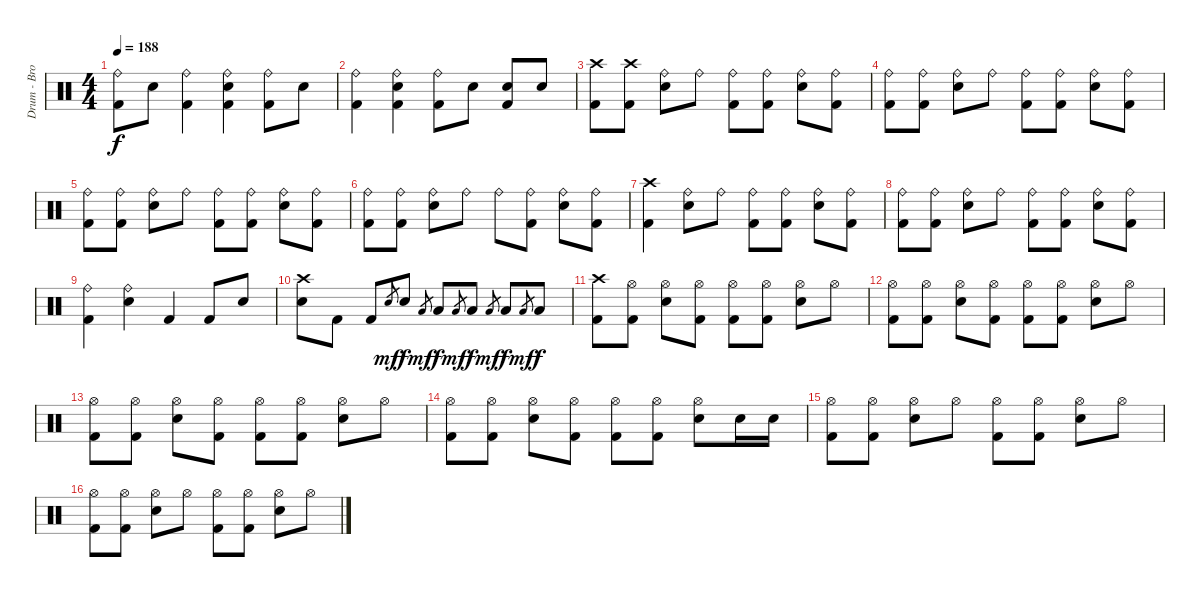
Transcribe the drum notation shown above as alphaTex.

\track ("Drum - Brooks Wackerman" "Drum - Bro") {instrument percussion}
\staff {score}
\articulation defaults
\ts (4 4)
\tempo 188
\clef neutral
\ks c
("Ride (bell)" "Kick (hit) 2").8{dy f} "Electric Snare (hit)".8 ("Ride (bell)" "Kick (hit) 2").4 ("Ride (bell)" "Electric Snare (hit)" "Kick (hit) 2").4 ("Ride (bell)" "Kick (hit) 2").8 "Electric Snare (hit)".8 |
("Ride (bell)" "Kick (hit) 2").4 ("Ride (bell)" "Electric Snare (hit)" "Kick (hit) 2").4 ("Ride (bell)" "Kick (hit) 2").8 "Electric Snare (hit)".8 ("Electric Snare (hit)" "Kick (hit) 2").8 "Electric Snare (hit)".8 |
("Crash high (hit)" "Kick (hit) 2").8{volume 14} ("Crash high (hit)" "Kick (hit) 2").8 ("Ride (bell)" "Electric Snare (hit)").8 "Ride (bell)".8 ("Ride (bell)" "Kick (hit) 2").8 ("Ride (bell)" "Kick (hit) 2").8 ("Ride (bell)" "Electric Snare (hit)").8 ("Ride (bell)" "Kick (hit) 2").8 |
("Ride (bell)" "Kick (hit) 2").8 ("Ride (bell)" "Kick (hit) 2").8 ("Ride (bell)" "Electric Snare (hit)").8 "Ride (bell)".8 ("Ride (bell)" "Kick (hit) 2").8 ("Ride (bell)" "Kick (hit) 2").8 ("Ride (bell)" "Electric Snare (hit)").8 ("Ride (bell)" "Kick (hit) 2").8 |
("Ride (bell)" "Kick (hit) 2").8 ("Ride (bell)" "Kick (hit) 2").8 ("Ride (bell)" "Electric Snare (hit)").8 "Ride (bell)".8 ("Ride (bell)" "Kick (hit) 2").8 ("Ride (bell)" "Kick (hit) 2").8 ("Ride (bell)" "Electric Snare (hit)").8 ("Ride (bell)" "Kick (hit) 2").8 |
("Ride (bell)" "Kick (hit) 2").8 ("Ride (bell)" "Kick (hit) 2").8 ("Ride (bell)" "Electric Snare (hit)").8 "Ride (bell)".8 "Ride (bell)".8 ("Ride (bell)" "Kick (hit) 2").8 ("Ride (bell)" "Electric Snare (hit)").8 ("Ride (bell)" "Kick (hit) 2").8 |
("Crash high (hit)" "Kick (hit) 2").4 ("Ride (bell)" "Electric Snare (hit)").8 "Ride (bell)".8 ("Ride (bell)" "Kick (hit) 2").8 ("Ride (bell)" "Kick (hit) 2").8 ("Ride (bell)" "Electric Snare (hit)").8 ("Ride (bell)" "Kick (hit) 2").8 |
("Ride (bell)" "Kick (hit) 2").8 ("Ride (bell)" "Kick (hit) 2").8 ("Ride (bell)" "Electric Snare (hit)").8 "Ride (bell)".8 ("Ride (bell)" "Kick (hit) 2").8 ("Ride (bell)" "Kick (hit) 2").8 ("Ride (bell)" "Electric Snare (hit)").8 ("Ride (bell)" "Kick (hit) 2").8 |
("Ride (bell)" "Kick (hit) 2").4 ("Ride (bell)" "Electric Snare (hit)").4 "Kick (hit) 2".4 "Kick (hit) 2".8 "Electric Snare (hit)".8 |
("Crash high (hit)" "Electric Snare (hit)").8 "Kick (hit) 2".8 "Kick (hit) 2".8 "Electric Snare (hit)".8{gr dy mf} "Electric Snare (hit)".8{dy f} "Low Tom (hit)".8{gr dy mf} "Low Tom (hit)".8{dy f} "Low Floor Tom (hit)".8{gr dy mf} "Low Floor Tom (hit)".8{dy f} "Low Floor Tom (hit)".8{gr dy mf} "Low Floor Tom (hit)".8{dy f} "Low Floor Tom (hit)".8{gr dy mf} "Low Floor Tom (hit)".8{dy f} |
("Crash high (hit)" "Kick (hit) 2").8 ("Hi-Hat (open)" "Kick (hit) 2").8 ("Hi-Hat (open)" "Electric Snare (hit)").8 ("Hi-Hat (open)" "Kick (hit) 2").8 ("Hi-Hat (open)" "Kick (hit) 2").8 ("Hi-Hat (open)" "Kick (hit) 2").8 ("Hi-Hat (open)" "Electric Snare (hit)").8 "Hi-Hat (open)".8 |
("Hi-Hat (open)" "Kick (hit) 2").8 ("Hi-Hat (open)" "Kick (hit) 2").8 ("Hi-Hat (open)" "Electric Snare (hit)").8 ("Hi-Hat (open)" "Kick (hit) 2").8 ("Hi-Hat (open)" "Kick (hit) 2").8 ("Hi-Hat (open)" "Kick (hit) 2").8 ("Hi-Hat (open)" "Electric Snare (hit)").8 "Hi-Hat (open)".8 |
("Hi-Hat (open)" "Kick (hit) 2").8 ("Hi-Hat (open)" "Kick (hit) 2").8 ("Hi-Hat (open)" "Electric Snare (hit)").8 ("Hi-Hat (open)" "Kick (hit) 2").8 ("Hi-Hat (open)" "Kick (hit) 2").8 ("Hi-Hat (open)" "Kick (hit) 2").8 ("Hi-Hat (open)" "Electric Snare (hit)").8 "Hi-Hat (open)".8 |
("Hi-Hat (open)" "Kick (hit) 2").8 ("Hi-Hat (open)" "Kick (hit) 2").8 ("Hi-Hat (open)" "Electric Snare (hit)").8 ("Hi-Hat (open)" "Kick (hit) 2").8 ("Hi-Hat (open)" "Kick (hit) 2").8 ("Hi-Hat (open)" "Kick (hit) 2").8 ("Hi-Hat (open)" "Electric Snare (hit)").8 "Electric Snare (hit)".16 "Electric Snare (hit)".16 |
("Hi-Hat (open)" "Kick (hit) 2").8{volume 14} ("Hi-Hat (open)" "Kick (hit) 2").8 ("Hi-Hat (open)" "Electric Snare (hit)").8 "Hi-Hat (open)".8 ("Hi-Hat (open)" "Kick (hit) 2").8 ("Hi-Hat (open)" "Kick (hit) 2").8 ("Hi-Hat (open)" "Electric Snare (hit)").8 "Hi-Hat (open)".8 |
("Hi-Hat (open)" "Kick (hit) 2").8 ("Hi-Hat (open)" "Kick (hit) 2").8 ("Hi-Hat (open)" "Electric Snare (hit)").8 "Hi-Hat (open)".8 ("Hi-Hat (open)" "Kick (hit) 2").8 ("Hi-Hat (open)" "Kick (hit) 2").8 ("Hi-Hat (open)" "Electric Snare (hit)").8 "Hi-Hat (open)".8
